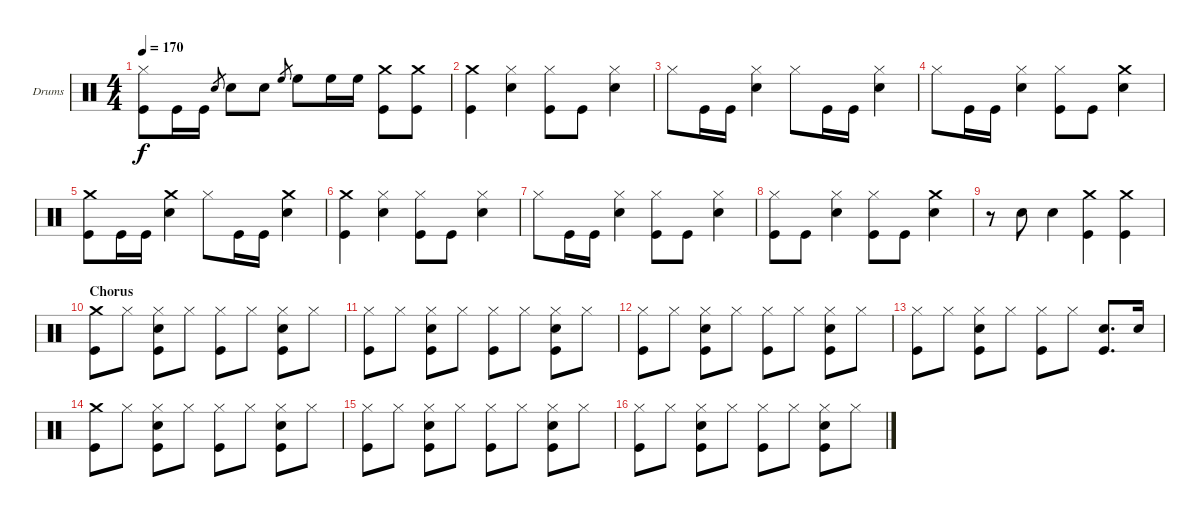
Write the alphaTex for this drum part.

\bracketExtendMode groupsimilarinstruments
\firstSystemTrackNameOrientation horizontal
\otherSystemsTrackNameOrientation horizontal
\track ("Drumkit" "Drums") {instrument percussion}
\staff {score}
\articulation defaults
\ts (4 4)
\tempo 170
\clef neutral
\ks c
("Hi-Hat (closed)" "Kick (hit)").8{dy f} "Kick (hit)".16 "Kick (hit)".16 "Snare (hit) 2".8{gr} "Snare (hit) 2".8 "Snare (hit) 2".8 "High Floor Tom (hit)".8{gr} "High Floor Tom (hit)".8 "High Floor Tom (hit)".16 "High Floor Tom (hit)".16 ("Crash medium (hit)" "Kick (hit)").8 ("Crash medium (hit)" "Kick (hit)").8 |
("Crash medium (hit)" "Kick (hit)").4 ("Hi-Hat (closed)" "Snare (hit) 2").4 ("Hi-Hat (closed)" "Kick (hit)").8 "Kick (hit)".8 ("Hi-Hat (closed)" "Snare (hit) 2").4 |
"Hi-Hat (closed)".8 "Kick (hit)".16 "Kick (hit)".16 ("Hi-Hat (closed)" "Snare (hit) 2").4 "Hi-Hat (closed)".8 "Kick (hit)".16 "Kick (hit)".16 ("Hi-Hat (closed)" "Snare (hit) 2").4 |
"Hi-Hat (closed)".8 "Kick (hit)".16 "Kick (hit)".16 ("Hi-Hat (closed)" "Snare (hit) 2").4 ("Hi-Hat (closed)" "Kick (hit)").8 "Kick (hit)".8 ("Crash medium (hit)" "Snare (hit) 2").4 |
("Crash medium (hit)" "Kick (hit)").8 "Kick (hit)".16 "Kick (hit)".16 ("Crash medium (hit)" "Snare (hit) 2").4 "Hi-Hat (closed)".8 "Kick (hit)".16 "Kick (hit)".16 ("Crash medium (hit)" "Snare (hit) 2").4 |
("Crash medium (hit)" "Kick (hit)").4 ("Hi-Hat (closed)" "Snare (hit) 2").4 ("Hi-Hat (closed)" "Kick (hit)").8 "Kick (hit)".8 ("Hi-Hat (closed)" "Snare (hit) 2").4 |
"Hi-Hat (closed)".8 "Kick (hit)".16 "Kick (hit)".16 ("Hi-Hat (closed)" "Snare (hit) 2").4 ("Hi-Hat (closed)" "Kick (hit)").8 "Kick (hit)".8 ("Hi-Hat (closed)" "Snare (hit) 2").4 |
("Hi-Hat (closed)" "Kick (hit)").8 "Kick (hit)".8 ("Hi-Hat (closed)" "Snare (hit) 2").4 ("Hi-Hat (closed)" "Kick (hit)").8 "Kick (hit)".8 ("Crash medium (hit)" "Snare (hit) 2").4 |
r.8 "Snare (hit) 2".8 "Snare (hit) 2".4 ("Crash medium (hit)" "Kick (hit)").4 ("Crash medium (hit)" "Kick (hit)").4 |
\section ("" "Chorus")
("Crash medium (hit)" "Kick (hit)").8 "Hi-Hat (closed)".8 ("Hi-Hat (closed)" "Snare (hit) 2" "Kick (hit)").8 "Hi-Hat (closed)".8 ("Hi-Hat (closed)" "Kick (hit)").8 "Hi-Hat (closed)".8 ("Hi-Hat (closed)" "Snare (hit) 2" "Kick (hit)").8 "Hi-Hat (closed)".8 |
("Hi-Hat (closed)" "Kick (hit)").8 "Hi-Hat (closed)".8 ("Hi-Hat (closed)" "Snare (hit) 2" "Kick (hit)").8 "Hi-Hat (closed)".8 ("Hi-Hat (closed)" "Kick (hit)").8 "Hi-Hat (closed)".8 ("Hi-Hat (closed)" "Snare (hit) 2" "Kick (hit)").8 "Hi-Hat (closed)".8 |
("Hi-Hat (closed)" "Kick (hit)").8 "Hi-Hat (closed)".8 ("Hi-Hat (closed)" "Snare (hit) 2" "Kick (hit)").8 "Hi-Hat (closed)".8 ("Hi-Hat (closed)" "Kick (hit)").8 "Hi-Hat (closed)".8 ("Hi-Hat (closed)" "Snare (hit) 2" "Kick (hit)").8 "Hi-Hat (closed)".8 |
("Hi-Hat (closed)" "Kick (hit)").8 "Hi-Hat (closed)".8 ("Hi-Hat (closed)" "Snare (hit) 2" "Kick (hit)").8 "Hi-Hat (closed)".8 ("Hi-Hat (closed)" "Kick (hit)").8 "Hi-Hat (closed)".8 ("Snare (hit) 2" "Kick (hit)").8{d} "Snare (hit) 2".16 |
("Crash medium (hit)" "Kick (hit)").8 "Hi-Hat (closed)".8 ("Hi-Hat (closed)" "Snare (hit) 2" "Kick (hit)").8 "Hi-Hat (closed)".8 ("Hi-Hat (closed)" "Kick (hit)").8 "Hi-Hat (closed)".8 ("Hi-Hat (closed)" "Snare (hit) 2" "Kick (hit)").8 "Hi-Hat (closed)".8 |
("Hi-Hat (closed)" "Kick (hit)").8 "Hi-Hat (closed)".8 ("Hi-Hat (closed)" "Snare (hit) 2" "Kick (hit)").8 "Hi-Hat (closed)".8 ("Hi-Hat (closed)" "Kick (hit)").8 "Hi-Hat (closed)".8 ("Hi-Hat (closed)" "Snare (hit) 2" "Kick (hit)").8 "Hi-Hat (closed)".8 |
("Hi-Hat (closed)" "Kick (hit)").8 "Hi-Hat (closed)".8 ("Hi-Hat (closed)" "Snare (hit) 2" "Kick (hit)").8 "Hi-Hat (closed)".8 ("Hi-Hat (closed)" "Kick (hit)").8 "Hi-Hat (closed)".8 ("Hi-Hat (closed)" "Snare (hit) 2" "Kick (hit)").8 "Hi-Hat (closed)".8
